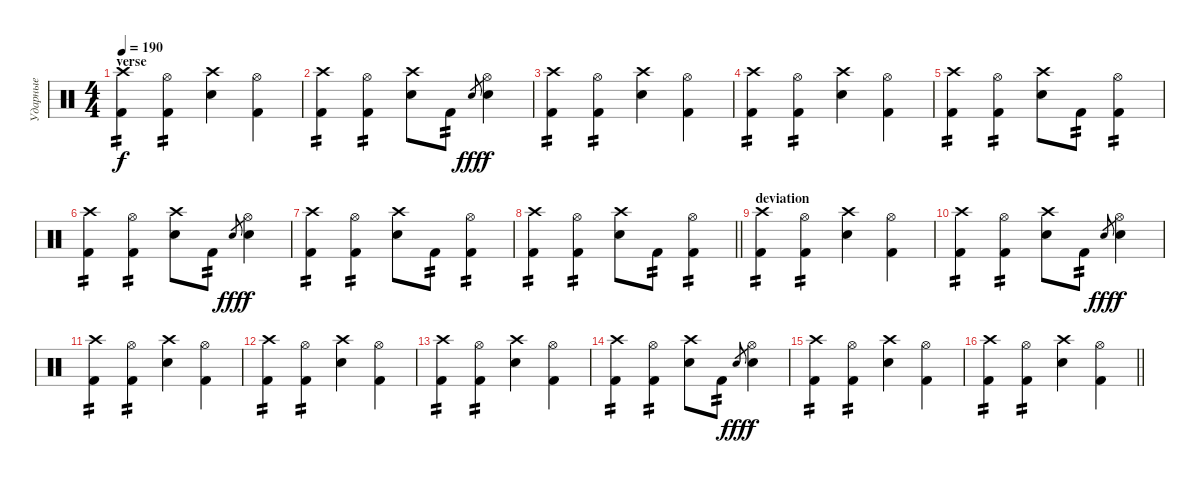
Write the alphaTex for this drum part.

\track ("Ударные" "Ударные") {instrument percussion}
\staff {score}
\articulation defaults
\ts (4 4)
\section ("" "verse")
\tempo 190
\clef neutral
\ks c
("Crash high (hit)" "Kick (hit) 2").4{tp 2 dy f} ("Hi-Hat (open)" "Kick (hit) 2").4{tp 2} ("Crash high (hit)" "Snare (hit) 2").4 ("Hi-Hat (open)" "Kick (hit) 2").4 |
("Crash high (hit)" "Kick (hit) 2").4{tp 2} ("Hi-Hat (open)" "Kick (hit) 2").4{tp 2} ("Crash high (hit)" "Snare (hit) 2").8 "Kick (hit) 2".8{tp 2} "Snare (hit) 2".8{gr dy fff} ("Hi-Hat (open)" "Snare (hit) 2").4{dy f} |
("Crash high (hit)" "Kick (hit) 2").4{tp 2} ("Hi-Hat (open)" "Kick (hit) 2").4{tp 2} ("Crash high (hit)" "Snare (hit) 2").4 ("Hi-Hat (open)" "Kick (hit) 2").4 |
("Crash high (hit)" "Kick (hit) 2").4{tp 2} ("Hi-Hat (open)" "Kick (hit) 2").4{tp 2} ("Crash high (hit)" "Snare (hit) 2").4 ("Hi-Hat (open)" "Kick (hit) 2").4 |
("Crash high (hit)" "Kick (hit) 2").4{tp 2} ("Hi-Hat (open)" "Kick (hit) 2").4{tp 2} ("Crash high (hit)" "Snare (hit) 2").8 "Kick (hit) 2".8{tp 2} ("Hi-Hat (open)" "Kick (hit) 2").4{tp 2} |
("Crash high (hit)" "Kick (hit) 2").4{tp 2} ("Hi-Hat (open)" "Kick (hit) 2").4{tp 2} ("Crash high (hit)" "Snare (hit) 2").8 "Kick (hit) 2".8{tp 2} "Snare (hit) 2".8{gr dy fff} ("Hi-Hat (open)" "Snare (hit) 2").4{dy f} |
("Crash high (hit)" "Kick (hit) 2").4{tp 2} ("Hi-Hat (open)" "Kick (hit) 2").4{tp 2} ("Crash high (hit)" "Snare (hit) 2").8 "Kick (hit) 2".8{tp 2} ("Hi-Hat (open)" "Kick (hit) 2").4{tp 2} |
\barLineRight lightlight
("Crash high (hit)" "Kick (hit) 2").4{tp 2} ("Hi-Hat (open)" "Kick (hit) 2").4{tp 2} ("Crash high (hit)" "Snare (hit) 2").8 "Kick (hit) 2".8{tp 2} ("Hi-Hat (open)" "Kick (hit) 2").4{tp 2} |
\section ("" "deviation")
("Crash high (hit)" "Kick (hit) 2").4{tp 2} ("Hi-Hat (open)" "Kick (hit) 2").4{tp 2} ("Crash high (hit)" "Snare (hit) 2").4 ("Hi-Hat (open)" "Kick (hit) 2").4 |
("Crash high (hit)" "Kick (hit) 2").4{tp 2} ("Hi-Hat (open)" "Kick (hit) 2").4{tp 2} ("Crash high (hit)" "Snare (hit) 2").8 "Kick (hit) 2".8{tp 2} "Snare (hit) 2".8{gr dy fff} ("Hi-Hat (open)" "Snare (hit) 2").4{dy f} |
("Crash high (hit)" "Kick (hit) 2").4{tp 2} ("Hi-Hat (open)" "Kick (hit) 2").4{tp 2} ("Crash high (hit)" "Snare (hit) 2").4 ("Hi-Hat (open)" "Kick (hit) 2").4 |
("Crash high (hit)" "Kick (hit) 2").4{tp 2} ("Hi-Hat (open)" "Kick (hit) 2").4{tp 2} ("Crash high (hit)" "Snare (hit) 2").4 ("Hi-Hat (open)" "Kick (hit) 2").4 |
("Crash high (hit)" "Kick (hit) 2").4{tp 2} ("Hi-Hat (open)" "Kick (hit) 2").4{tp 2} ("Crash high (hit)" "Snare (hit) 2").4 ("Hi-Hat (open)" "Kick (hit) 2").4 |
("Crash high (hit)" "Kick (hit) 2").4{tp 2} ("Hi-Hat (open)" "Kick (hit) 2").4{tp 2} ("Crash high (hit)" "Snare (hit) 2").8 "Kick (hit) 2".8{tp 2} "Snare (hit) 2".8{gr dy fff} ("Hi-Hat (open)" "Snare (hit) 2").4{dy f} |
("Crash high (hit)" "Kick (hit) 2").4{tp 2} ("Hi-Hat (open)" "Kick (hit) 2").4{tp 2} ("Crash high (hit)" "Snare (hit) 2").4 ("Hi-Hat (open)" "Kick (hit) 2").4 |
\barLineRight lightlight
("Crash high (hit)" "Kick (hit) 2").4{tp 2} ("Hi-Hat (open)" "Kick (hit) 2").4{tp 2} ("Crash high (hit)" "Snare (hit) 2").4 ("Hi-Hat (open)" "Kick (hit) 2").4
